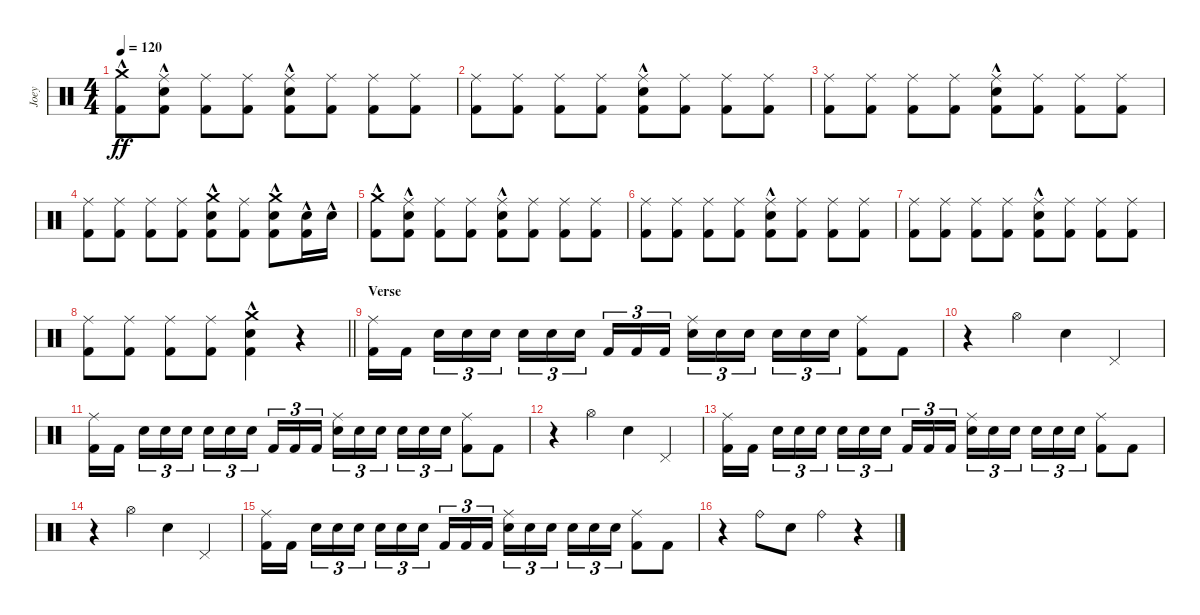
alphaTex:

\track ("Joey" "Joey") {instrument percussion}
\staff {score}
\articulation defaults
\ts (4 4)
\tempo 120
\clef neutral
\ks c
("Crash medium (hit)"{hac} "Kick (hit) 2").8{dy ff} ("Ride (middle)" "Snare (hit) 2"{hac} "Kick (hit) 2").8 ("Ride (middle)" "Kick (hit) 2").8 ("Ride (middle)" "Kick (hit) 2").8 ("Ride (middle)" "Snare (hit) 2"{hac} "Kick (hit) 2").8 ("Ride (middle)" "Kick (hit) 2").8 ("Ride (middle)" "Kick (hit) 2").8 ("Ride (middle)" "Kick (hit) 2").8 |
("Ride (middle)" "Kick (hit) 2").8 ("Ride (middle)" "Kick (hit) 2").8 ("Ride (middle)" "Kick (hit) 2").8 ("Ride (middle)" "Kick (hit) 2").8 ("Ride (middle)" "Snare (hit) 2"{hac} "Kick (hit) 2").8 ("Ride (middle)" "Kick (hit) 2").8 ("Ride (middle)" "Kick (hit) 2").8 ("Ride (middle)" "Kick (hit) 2").8 |
("Ride (middle)" "Kick (hit) 2").8 ("Ride (middle)" "Kick (hit) 2").8 ("Ride (middle)" "Kick (hit) 2").8 ("Ride (middle)" "Kick (hit) 2").8 ("Ride (middle)" "Snare (hit) 2"{hac} "Kick (hit) 2").8 ("Ride (middle)" "Kick (hit) 2").8 ("Ride (middle)" "Kick (hit) 2").8 ("Ride (middle)" "Kick (hit) 2").8 |
("Ride (middle)" "Kick (hit) 2").8 ("Ride (middle)" "Kick (hit) 2").8 ("Ride (middle)" "Kick (hit) 2").8 ("Ride (middle)" "Kick (hit) 2").8 ("Crash medium (hit)" "Snare (hit) 2"{hac} "Kick (hit) 2").8 ("Ride (middle)" "Kick (hit) 2").8 ("Crash medium (hit)" "Snare (hit) 2"{hac} "Kick (hit) 2").8 ("Snare (hit) 2"{hac} "Kick (hit) 2").16 "Snare (hit) 2"{hac}.16 |
("Crash medium (hit)"{hac} "Kick (hit) 2").8 ("Ride (middle)" "Snare (hit) 2"{hac} "Kick (hit) 2").8 ("Ride (middle)" "Kick (hit) 2").8 ("Ride (middle)" "Kick (hit) 2").8 ("Ride (middle)" "Snare (hit) 2"{hac} "Kick (hit) 2").8 ("Ride (middle)" "Kick (hit) 2").8 ("Ride (middle)" "Kick (hit) 2").8 ("Ride (middle)" "Kick (hit) 2").8 |
("Ride (middle)" "Kick (hit) 2").8 ("Ride (middle)" "Kick (hit) 2").8 ("Ride (middle)" "Kick (hit) 2").8 ("Ride (middle)" "Kick (hit) 2").8 ("Ride (middle)" "Snare (hit) 2"{hac} "Kick (hit) 2").8 ("Ride (middle)" "Kick (hit) 2").8 ("Ride (middle)" "Kick (hit) 2").8 ("Ride (middle)" "Kick (hit) 2").8 |
("Ride (middle)" "Kick (hit) 2").8 ("Ride (middle)" "Kick (hit) 2").8 ("Ride (middle)" "Kick (hit) 2").8 ("Ride (middle)" "Kick (hit) 2").8 ("Ride (middle)" "Snare (hit) 2"{hac} "Kick (hit) 2").8 ("Ride (middle)" "Kick (hit) 2").8 ("Ride (middle)" "Kick (hit) 2").8 ("Ride (middle)" "Kick (hit) 2").8 |
\barLineRight lightlight
("Ride (middle)" "Kick (hit) 2").8 ("Ride (middle)" "Kick (hit) 2").8 ("Ride (middle)" "Kick (hit) 2").8 ("Ride (middle)" "Kick (hit) 2").8 ("Crash medium (hit)" "Snare (hit) 2"{hac} "Kick (hit) 2").4 r.4 |
\section ("" "Verse")
("Ride (middle)" "Kick (hit) 2").16 "Kick (hit) 2".16{beam splitsecondary} "Snare (hit) 2".16{tu (3 2)} "Snare (hit) 2".16{tu (3 2)} "Snare (hit) 2".16{tu (3 2)} "Snare (hit) 2".16{tu (3 2)} "Snare (hit) 2".16{tu (3 2)} "Snare (hit) 2".16{tu (3 2) beam splitsecondary} "Kick (hit) 2".16{tu (3 2)} "Kick (hit) 2".16{tu (3 2)} "Kick (hit) 2".16{tu (3 2)} ("Ride (middle)" "Snare (hit) 2").16{tu (3 2)} "Snare (hit) 2".16{tu (3 2)} "Snare (hit) 2".16{tu (3 2) beam splitsecondary} "Snare (hit) 2".16{tu (3 2)} "Snare (hit) 2".16{tu (3 2)} "Snare (hit) 2".16{tu (3 2)} ("Ride (middle)" "Kick (hit) 2").8 "Kick (hit) 2".8 |
r.4 "Hi-Hat (open)".4 "Snare (hit) 2".4 "Pedal Hi-Hat (hit)".4 |
("Ride (middle)" "Kick (hit) 2").16 "Kick (hit) 2".16{beam splitsecondary} "Snare (hit) 2".16{tu (3 2)} "Snare (hit) 2".16{tu (3 2)} "Snare (hit) 2".16{tu (3 2)} "Snare (hit) 2".16{tu (3 2)} "Snare (hit) 2".16{tu (3 2)} "Snare (hit) 2".16{tu (3 2) beam splitsecondary} "Kick (hit) 2".16{tu (3 2)} "Kick (hit) 2".16{tu (3 2)} "Kick (hit) 2".16{tu (3 2)} ("Ride (middle)" "Snare (hit) 2").16{tu (3 2)} "Snare (hit) 2".16{tu (3 2)} "Snare (hit) 2".16{tu (3 2) beam splitsecondary} "Snare (hit) 2".16{tu (3 2)} "Snare (hit) 2".16{tu (3 2)} "Snare (hit) 2".16{tu (3 2)} ("Ride (middle)" "Kick (hit) 2").8 "Kick (hit) 2".8 |
r.4 "Hi-Hat (open)".4 "Snare (hit) 2".4 "Pedal Hi-Hat (hit)".4 |
("Ride (middle)" "Kick (hit) 2").16 "Kick (hit) 2".16{beam splitsecondary} "Snare (hit) 2".16{tu (3 2)} "Snare (hit) 2".16{tu (3 2)} "Snare (hit) 2".16{tu (3 2)} "Snare (hit) 2".16{tu (3 2)} "Snare (hit) 2".16{tu (3 2)} "Snare (hit) 2".16{tu (3 2) beam splitsecondary} "Kick (hit) 2".16{tu (3 2)} "Kick (hit) 2".16{tu (3 2)} "Kick (hit) 2".16{tu (3 2)} ("Ride (middle)" "Snare (hit) 2").16{tu (3 2)} "Snare (hit) 2".16{tu (3 2)} "Snare (hit) 2".16{tu (3 2) beam splitsecondary} "Snare (hit) 2".16{tu (3 2)} "Snare (hit) 2".16{tu (3 2)} "Snare (hit) 2".16{tu (3 2)} ("Ride (middle)" "Kick (hit) 2").8 "Kick (hit) 2".8 |
r.4 "Hi-Hat (open)".4 "Snare (hit) 2".4 "Pedal Hi-Hat (hit)".4 |
("Ride (middle)" "Kick (hit) 2").16 "Kick (hit) 2".16{beam splitsecondary} "Snare (hit) 2".16{tu (3 2)} "Snare (hit) 2".16{tu (3 2)} "Snare (hit) 2".16{tu (3 2)} "Snare (hit) 2".16{tu (3 2)} "Snare (hit) 2".16{tu (3 2)} "Snare (hit) 2".16{tu (3 2) beam splitsecondary} "Kick (hit) 2".16{tu (3 2)} "Kick (hit) 2".16{tu (3 2)} "Kick (hit) 2".16{tu (3 2)} ("Ride (middle)" "Snare (hit) 2").16{tu (3 2)} "Snare (hit) 2".16{tu (3 2)} "Snare (hit) 2".16{tu (3 2) beam splitsecondary} "Snare (hit) 2".16{tu (3 2)} "Snare (hit) 2".16{tu (3 2)} "Snare (hit) 2".16{tu (3 2)} ("Ride (middle)" "Kick (hit) 2").8 "Kick (hit) 2".8 |
r.4 "Ride (bell)".8 "Snare (hit) 2".8 "Ride (bell)".4 r.4
